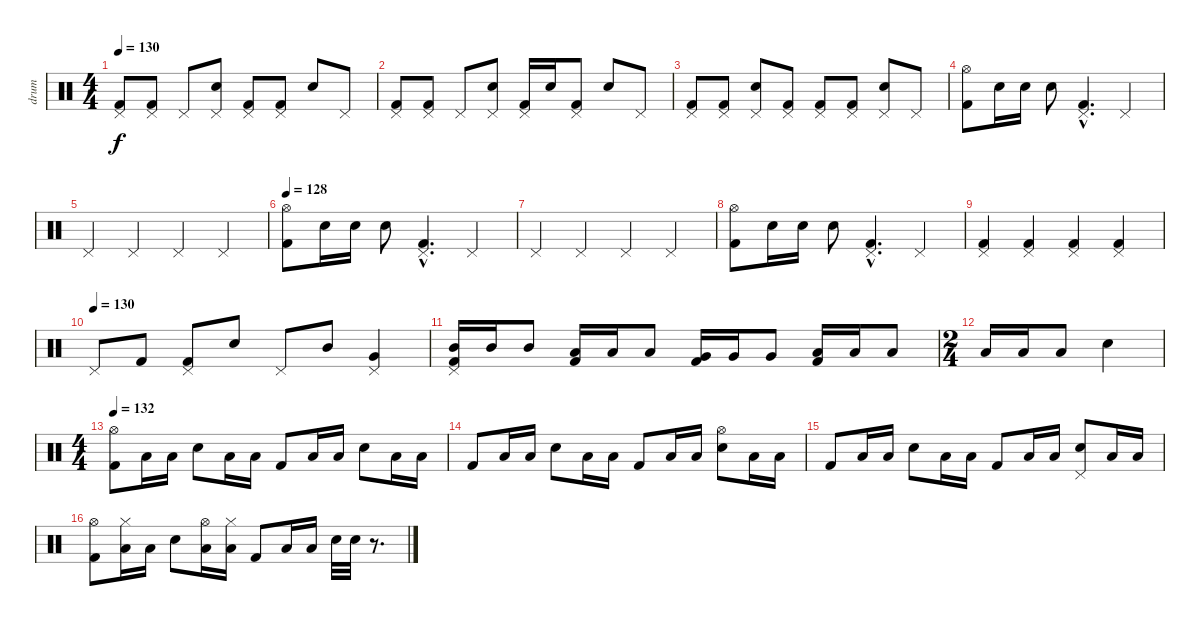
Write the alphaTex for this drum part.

\track ("drum" "drum") {instrument percussion}
\staff {score}
\articulation defaults
\ts (4 4)
\tempo 130
\clef neutral
\ks c
("Pedal Hi-Hat (hit)" "Kick (hit) 2").8{dy f} ("Pedal Hi-Hat (hit)" "Kick (hit) 2").8 "Pedal Hi-Hat (hit)".8 ("Pedal Hi-Hat (hit)" "Electric Snare (hit)").8 ("Pedal Hi-Hat (hit)" "Kick (hit) 2").8 ("Pedal Hi-Hat (hit)" "Kick (hit) 2").8 "Electric Snare (hit)".8 "Pedal Hi-Hat (hit)".8 |
("Pedal Hi-Hat (hit)" "Kick (hit) 2").8 ("Pedal Hi-Hat (hit)" "Kick (hit) 2").8 "Pedal Hi-Hat (hit)".8 ("Pedal Hi-Hat (hit)" "Electric Snare (hit)").8 ("Pedal Hi-Hat (hit)" "Kick (hit) 2").16 "Electric Snare (hit)".16 ("Pedal Hi-Hat (hit)" "Kick (hit) 2").8 "Electric Snare (hit)".8 "Pedal Hi-Hat (hit)".8 |
("Pedal Hi-Hat (hit)" "Kick (hit) 2").8 ("Pedal Hi-Hat (hit)" "Kick (hit) 2").8 ("Pedal Hi-Hat (hit)" "Electric Snare (hit)").8 ("Pedal Hi-Hat (hit)" "Kick (hit) 2").8 ("Pedal Hi-Hat (hit)" "Kick (hit) 2").8 ("Pedal Hi-Hat (hit)" "Kick (hit) 2").8 ("Pedal Hi-Hat (hit)" "Electric Snare (hit)").8 "Pedal Hi-Hat (hit)".8 |
("Hi-Hat (open)" "Kick (hit) 2").8 "Electric Snare (hit)".16 "Electric Snare (hit)".16 "Electric Snare (hit)".8 ("Pedal Hi-Hat (hit)"{hac} "Kick (hit) 2"{hac}).4{d} "Pedal Hi-Hat (hit)".4 |
"Pedal Hi-Hat (hit)".4 "Pedal Hi-Hat (hit)".4 "Pedal Hi-Hat (hit)".4 "Pedal Hi-Hat (hit)".4 |
\tempo 128
("Hi-Hat (open)" "Kick (hit) 2").8 "Electric Snare (hit)".16 "Electric Snare (hit)".16 "Electric Snare (hit)".8 ("Pedal Hi-Hat (hit)"{hac} "Kick (hit) 2"{hac}).4{d} "Pedal Hi-Hat (hit)".4 |
"Pedal Hi-Hat (hit)".4 "Pedal Hi-Hat (hit)".4 "Pedal Hi-Hat (hit)".4 "Pedal Hi-Hat (hit)".4 |
("Hi-Hat (open)" "Kick (hit) 2").8 "Electric Snare (hit)".16 "Electric Snare (hit)".16 "Electric Snare (hit)".8 ("Pedal Hi-Hat (hit)"{hac} "Kick (hit) 2"{hac}).4{d} "Pedal Hi-Hat (hit)".4 |
("Pedal Hi-Hat (hit)" "Kick (hit) 2").4 ("Pedal Hi-Hat (hit)" "Kick (hit) 2").4 ("Pedal Hi-Hat (hit)" "Kick (hit) 2").4 ("Pedal Hi-Hat (hit)" "Kick (hit) 2").4 |
\tempo (130)
"Pedal Hi-Hat (hit)".8 "Kick (hit) 2".8 ("Pedal Hi-Hat (hit)" "Kick (hit) 2").8 "Electric Snare (hit)".8 "Pedal Hi-Hat (hit)".8 "Mid Tom (hit)".8 ("Pedal Hi-Hat (hit)" "Very Low Tom (hit)").4 |
("Pedal Hi-Hat (hit)" "Mid Tom (hit)" "Kick (hit) 2").16 "Mid Tom (hit)".16 "Mid Tom (hit)".8 ("Low Tom (hit)" "Kick (hit) 2").16 "Low Tom (hit)".16 "Low Tom (hit)".8 ("Very Low Tom (hit)" "Kick (hit) 2").16 "Very Low Tom (hit)".16 "Very Low Tom (hit)".8 ("Low Floor Tom (hit)" "Kick (hit) 2").16 "Low Floor Tom (hit)".16 "Low Floor Tom (hit)".8 |
\ts (2 4)
"Low Tom (hit)".16 "Low Tom (hit)".16 "Low Tom (hit)".8 "Electric Snare (hit)".4 |
\ts (4 4)
\tempo 132
("Hi-Hat (open)" "Kick (hit) 2").8 "Low Tom (hit)".16 "Low Tom (hit)".16 "Electric Snare (hit)".8 "Low Tom (hit)".16 "Low Tom (hit)".16 "Kick (hit) 2".8 "Low Tom (hit)".16 "Low Tom (hit)".16 "Electric Snare (hit)".8 "Low Tom (hit)".16 "Low Tom (hit)".16 |
"Kick (hit) 2".8 "Low Tom (hit)".16 "Low Tom (hit)".16 "Electric Snare (hit)".8 "Low Tom (hit)".16 "Low Tom (hit)".16 "Kick (hit) 2".8 "Low Tom (hit)".16 "Low Tom (hit)".16 ("Hi-Hat (open)" "Electric Snare (hit)").8 "Low Tom (hit)".16 "Low Tom (hit)".16 |
"Kick (hit) 2".8 "Low Tom (hit)".16 "Low Tom (hit)".16 "Electric Snare (hit)".8 "Low Tom (hit)".16 "Low Tom (hit)".16 "Kick (hit) 2".8 "Low Tom (hit)".16 "Low Tom (hit)".16 ("Pedal Hi-Hat (hit)" "Electric Snare (hit)").8 "Low Tom (hit)".16 "Low Tom (hit)".16 |
("Hi-Hat (open)" "Kick (hit) 2").8 ("Hi-Hat (closed)" "Low Tom (hit)").16 "Low Tom (hit)".16 "Electric Snare (hit)".8 ("Hi-Hat (open)" "Low Tom (hit)").16 ("Hi-Hat (closed)" "Low Tom (hit)").16 "Kick (hit) 2".8 "Low Tom (hit)".16 "Low Tom (hit)".16 "Electric Snare (hit)".32 "Electric Snare (hit)".32 r.8{d}
